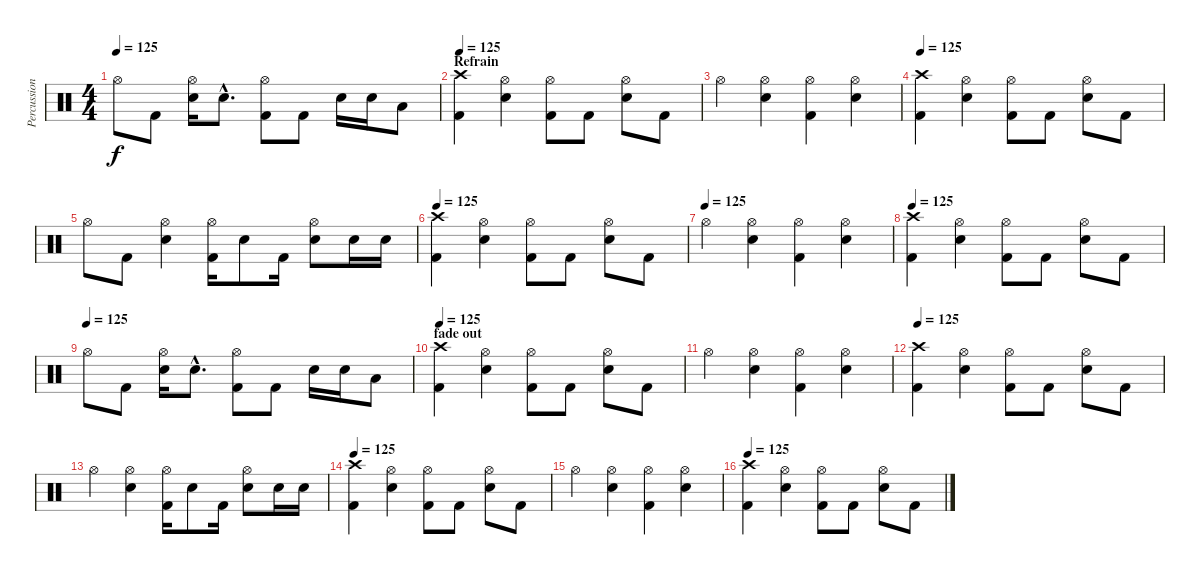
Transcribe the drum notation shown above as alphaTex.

\track ("Percussion" "Percussion") {instrument percussion}
\staff {score}
\articulation defaults
\ts (4 4)
\tempo 125
\clef neutral
\ks c "Hi-Hat (open)".8{dy f} "Kick (hit) 2".8
("Hi-Hat (open)" "Electric Snare (hit)").16 "Electric Snare (hit)"{hac}.8{d} ("Hi-Hat (open)" "Kick (hit) 2").8 "Kick (hit) 2".8 "Electric Snare (hit)".16 "Electric Snare (hit)".16 "Low Tom (hit)".8 |
\section ("" "Refrain")
\tempo 125
("Crash high (hit)" "Kick (hit) 2").4{volume 13} ("Hi-Hat (open)" "Electric Snare (hit)").4 ("Hi-Hat (open)" "Kick (hit) 2").8 "Kick (hit) 2".8 ("Hi-Hat (open)" "Electric Snare (hit)").8 "Kick (hit) 2".8 |
"Hi-Hat (open)".4 ("Hi-Hat (open)" "Electric Snare (hit)").4 ("Hi-Hat (open)" "Kick (hit) 2").4 ("Hi-Hat (open)" "Electric Snare (hit)").4 |
\tempo 125
("Crash high (hit)" "Kick (hit) 2").4 ("Hi-Hat (open)" "Electric Snare (hit)").4 ("Hi-Hat (open)" "Kick (hit) 2").8 "Kick (hit) 2".8 ("Hi-Hat (open)" "Electric Snare (hit)").8 "Kick (hit) 2".8 |
"Hi-Hat (open)".8 "Kick (hit) 2".8 ("Hi-Hat (open)" "Electric Snare (hit)").4 ("Hi-Hat (open)" "Kick (hit) 2").16 "Electric Snare (hit)".8 "Kick (hit) 2".16 ("Hi-Hat (open)" "Electric Snare (hit)").8 "Electric Snare (hit)".16 "Electric Snare (hit)".16 |
\tempo 125
("Crash high (hit)" "Kick (hit) 2").4 ("Hi-Hat (open)" "Electric Snare (hit)").4 ("Hi-Hat (open)" "Kick (hit) 2").8 "Kick (hit) 2".8 ("Hi-Hat (open)" "Electric Snare (hit)").8 "Kick (hit) 2".8 |
\tempo (125)
"Hi-Hat (open)".4 ("Hi-Hat (open)" "Electric Snare (hit)").4 ("Hi-Hat (open)" "Kick (hit) 2").4 ("Hi-Hat (open)" "Electric Snare (hit)").4 |
\tempo 125
("Crash high (hit)" "Kick (hit) 2").4 ("Hi-Hat (open)" "Electric Snare (hit)").4 ("Hi-Hat (open)" "Kick (hit) 2").8 "Kick (hit) 2".8 ("Hi-Hat (open)" "Electric Snare (hit)").8 "Kick (hit) 2".8 |
\tempo (125)
"Hi-Hat (open)".8 "Kick (hit) 2".8 ("Hi-Hat (open)" "Electric Snare (hit)").16 "Electric Snare (hit)"{hac}.8{d} ("Hi-Hat (open)" "Kick (hit) 2").8 "Kick (hit) 2".8 "Electric Snare (hit)".16 "Electric Snare (hit)".16 "Low Tom (hit)".8 |
\section ("" "fade out")
\tempo 125
("Crash high (hit)" "Kick (hit) 2").4{volume 9} ("Hi-Hat (open)" "Electric Snare (hit)").4 ("Hi-Hat (open)" "Kick (hit) 2").8 "Kick (hit) 2".8 ("Hi-Hat (open)" "Electric Snare (hit)").8 "Kick (hit) 2".8 |
"Hi-Hat (open)".4 ("Hi-Hat (open)" "Electric Snare (hit)").4 ("Hi-Hat (open)" "Kick (hit) 2").4 ("Hi-Hat (open)" "Electric Snare (hit)").4 |
\tempo 125
("Crash high (hit)" "Kick (hit) 2").4{volume 6} ("Hi-Hat (open)" "Electric Snare (hit)").4 ("Hi-Hat (open)" "Kick (hit) 2").8 "Kick (hit) 2".8 ("Hi-Hat (open)" "Electric Snare (hit)").8 "Kick (hit) 2".8 |
"Hi-Hat (open)".4 ("Hi-Hat (open)" "Electric Snare (hit)").4 ("Hi-Hat (open)" "Kick (hit) 2").16 "Electric Snare (hit)".8 "Kick (hit) 2".16 ("Hi-Hat (open)" "Electric Snare (hit)").8 "Electric Snare (hit)".16 "Electric Snare (hit)".16 |
\tempo 125
("Crash high (hit)" "Kick (hit) 2").4{volume 3} ("Hi-Hat (open)" "Electric Snare (hit)").4 ("Hi-Hat (open)" "Kick (hit) 2").8 "Kick (hit) 2".8 ("Hi-Hat (open)" "Electric Snare (hit)").8 "Kick (hit) 2".8 |
"Hi-Hat (open)".4 ("Hi-Hat (open)" "Electric Snare (hit)").4 ("Hi-Hat (open)" "Kick (hit) 2").4 ("Hi-Hat (open)" "Electric Snare (hit)").4 |
\tempo 125
("Crash high (hit)" "Kick (hit) 2").4{volume 0} ("Hi-Hat (open)" "Electric Snare (hit)").4 ("Hi-Hat (open)" "Kick (hit) 2").8 "Kick (hit) 2".8 ("Hi-Hat (open)" "Electric Snare (hit)").8 "Kick (hit) 2".8
